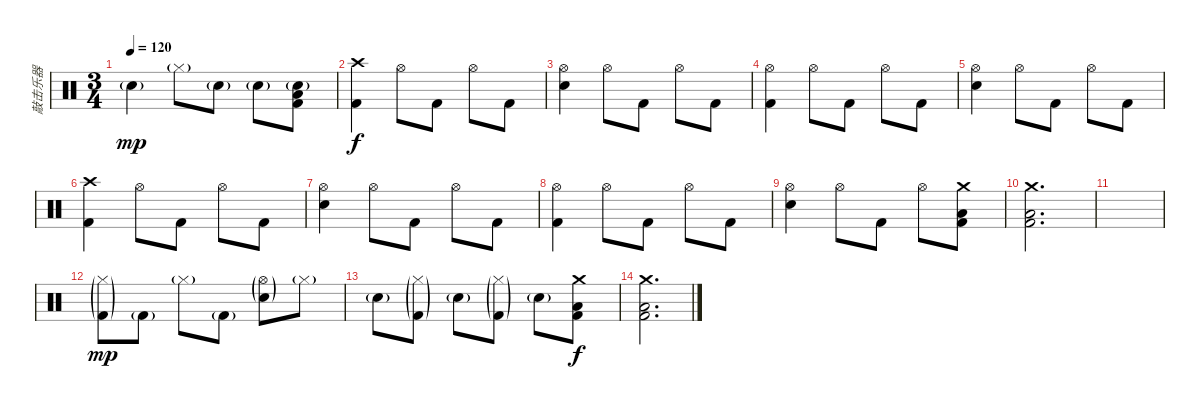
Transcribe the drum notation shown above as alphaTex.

\track ("敲击乐器" "敲击乐器") {instrument percussion}
\staff {score}
\articulation defaults
\ts (3 4)
\tempo 120
\clef neutral
\ks c "Electric Snare (hit)"{g}.4{dy mp} "Hi-Hat (closed)"{g}.8 "Electric Snare (hit)"{g}.8 "Electric Snare (hit)"{g}.8
("Kick (hit) 2" "Low Floor Tom (hit)" "Electric Snare (hit)"{g}).8 |
("Crash high (hit)" "Kick (hit) 2").4{dy f} "Hi-Hat (open)".8 "Kick (hit) 2".8 "Hi-Hat (open)".8 "Kick (hit) 2".8 |
("Hi-Hat (open)" "Snare (hit) 2").4 "Hi-Hat (open)".8 "Kick (hit) 2".8 "Hi-Hat (open)".8 "Kick (hit) 2".8 |
("Hi-Hat (open)" "Kick (hit) 2").4 "Hi-Hat (open)".8 "Kick (hit) 2".8 "Hi-Hat (open)".8 "Kick (hit) 2".8 |
("Hi-Hat (open)" "Snare (hit) 2").4 "Hi-Hat (open)".8 "Kick (hit) 2".8 "Hi-Hat (open)".8 "Kick (hit) 2".8 |
("Crash high (hit)" "Kick (hit) 2").4 "Hi-Hat (open)".8 "Kick (hit) 2".8 "Hi-Hat (open)".8 "Kick (hit) 2".8 |
("Hi-Hat (open)" "Snare (hit) 2").4 "Hi-Hat (open)".8 "Kick (hit) 2".8 "Hi-Hat (open)".8 "Kick (hit) 2".8 |
("Hi-Hat (open)" "Kick (hit) 2").4 "Hi-Hat (open)".8 "Kick (hit) 2".8 "Hi-Hat (open)".8 "Kick (hit) 2".8 |
("Hi-Hat (open)" "Snare (hit) 2").4 "Hi-Hat (open)".8 "Kick (hit) 2".8 "Hi-Hat (open)".8 ("Kick (hit) 2" "Crash medium (hit)" "Low Floor Tom (hit)").8 |
("Kick (hit) 2" "Low Floor Tom (hit)" "Crash medium (hit)").2{d} |
|
("Hi-Hat (closed)"{g} "Kick (hit) 2"{g}).8{dy mp} "Kick (hit) 2"{g}.8 "Hi-Hat (closed)"{g}.8 "Kick (hit) 2"{g}.8 ("Hi-Hat (open)"{g} "Electric Snare (hit)"{g}).8 "Hi-Hat (closed)"{g}.8 |
"Electric Snare (hit)"{g}.8 ("Hi-Hat (closed)"{g} "Kick (hit) 2"{g}).8 "Electric Snare (hit)"{g}.8 ("Hi-Hat (closed)"{g} "Kick (hit) 2"{g}).8 "Electric Snare (hit)"{g}.8 ("Crash medium (hit)" "Low Floor Tom (hit)" "Kick (hit) 2").8{dy f} |
("Kick (hit) 2" "Low Floor Tom (hit)" "Crash medium (hit)").2{d}
